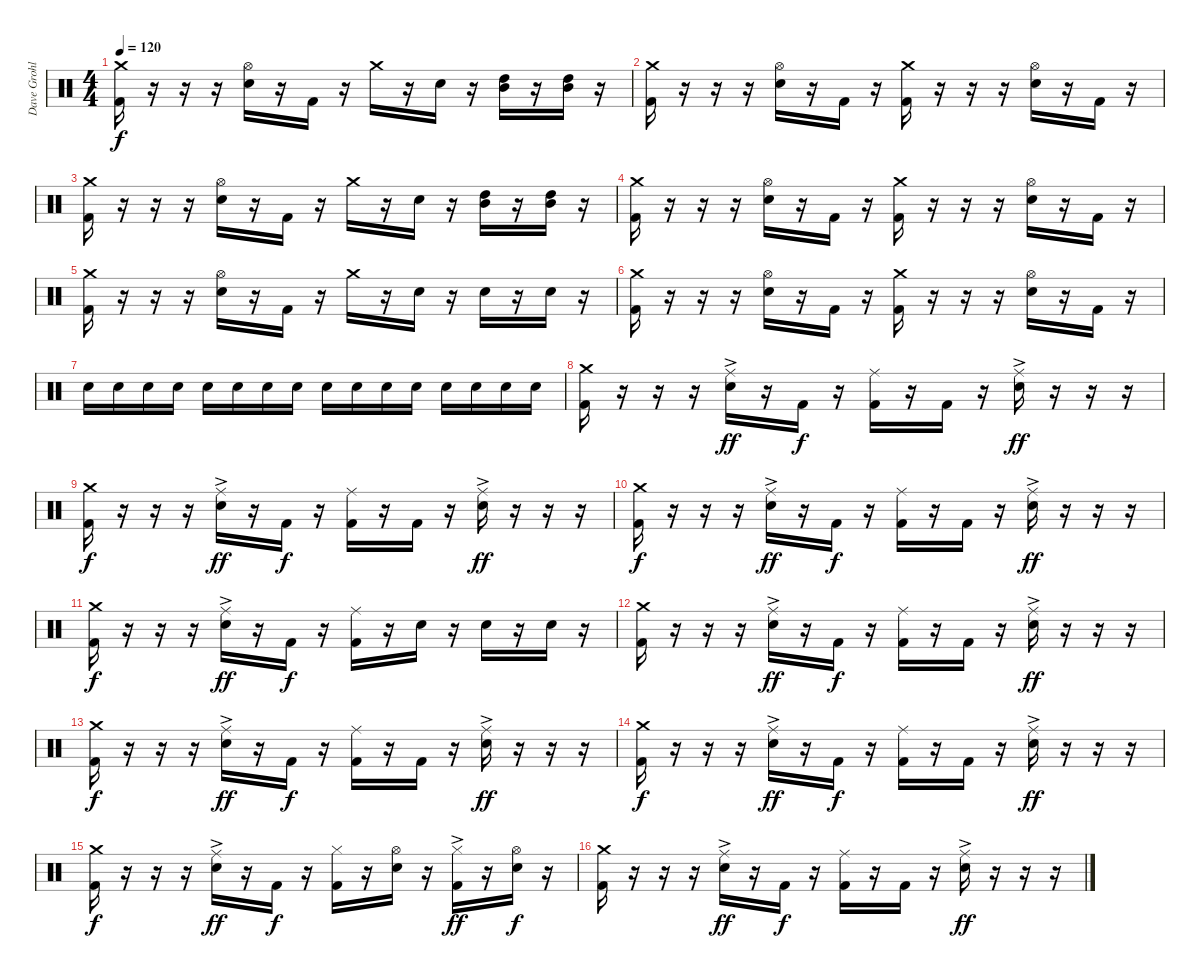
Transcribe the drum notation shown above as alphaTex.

\track ("Dave Grohl" "Dave Grohl") {instrument percussion}
\staff {score}
\articulation defaults
\ts (4 4)
\tempo 120
\clef neutral
\ks c
("Crash medium (hit)" "Kick (hit) 2").16{dy f} r.16 r.16 r.16 ("Hi-Hat (open)" "Electric Snare (hit)").16 r.16 "Kick (hit) 2".16 r.16 "Crash medium (hit)".16 r.16 "Electric Snare (hit)".16 r.16 ("High Tom (hit)" "Mid Tom (hit)").16 r.16 ("High Tom (hit)" "Mid Tom (hit)").16 r.16 |
("Crash medium (hit)" "Kick (hit) 2").16 r.16 r.16 r.16 ("Hi-Hat (open)" "Electric Snare (hit)").16 r.16 "Kick (hit) 2".16 r.16 ("Crash medium (hit)" "Kick (hit) 2").16 r.16 r.16 r.16 ("Hi-Hat (open)" "Electric Snare (hit)").16 r.16 "Kick (hit) 2".16 r.16 |
("Crash medium (hit)" "Kick (hit) 2").16 r.16 r.16 r.16 ("Hi-Hat (open)" "Electric Snare (hit)").16 r.16 "Kick (hit) 2".16 r.16 "Crash medium (hit)".16 r.16 "Electric Snare (hit)".16 r.16 ("High Tom (hit)" "Mid Tom (hit)").16 r.16 ("High Tom (hit)" "Mid Tom (hit)").16 r.16 |
("Crash medium (hit)" "Kick (hit) 2").16 r.16 r.16 r.16 ("Hi-Hat (open)" "Electric Snare (hit)").16 r.16 "Kick (hit) 2".16 r.16 ("Crash medium (hit)" "Kick (hit) 2").16 r.16 r.16 r.16 ("Hi-Hat (open)" "Electric Snare (hit)").16 r.16 "Kick (hit) 2".16 r.16 |
("Crash medium (hit)" "Kick (hit) 2").16 r.16 r.16 r.16 ("Hi-Hat (open)" "Electric Snare (hit)").16 r.16 "Kick (hit) 2".16 r.16 "Crash medium (hit)".16 r.16 "Electric Snare (hit)".16 r.16 "Electric Snare (hit)".16 r.16 "Electric Snare (hit)".16 r.16 |
("Crash medium (hit)" "Kick (hit) 2").16 r.16 r.16 r.16 ("Hi-Hat (open)" "Electric Snare (hit)").16 r.16 "Kick (hit) 2".16 r.16 ("Crash medium (hit)" "Kick (hit) 2").16 r.16 r.16 r.16 ("Hi-Hat (open)" "Electric Snare (hit)").16 r.16 "Kick (hit) 2".16 r.16 |
"Electric Snare (hit)".16 "Electric Snare (hit)".16 "Electric Snare (hit)".16 "Electric Snare (hit)".16 "Electric Snare (hit)".16 "Electric Snare (hit)".16 "Electric Snare (hit)".16 "Electric Snare (hit)".16 "Electric Snare (hit)".16 "Electric Snare (hit)".16 "Electric Snare (hit)".16 "Electric Snare (hit)".16 "Electric Snare (hit)".16 "Electric Snare (hit)".16 "Electric Snare (hit)".16 "Electric Snare (hit)".16 |
("Crash medium (hit)" "Kick (hit) 2").16 r.16 r.16 r.16 ("Ride (middle)"{ac} "Electric Snare (hit)").16{dy ff} r.16 "Kick (hit) 2".16{dy f} r.16 ("Ride (middle)" "Kick (hit) 2").16 r.16 "Kick (hit) 2".16 r.16 ("Ride (middle)"{ac} "Electric Snare (hit)").16{dy ff} r.16 r.16 r.16 |
("Crash medium (hit)" "Kick (hit) 2").16{dy f} r.16 r.16 r.16 ("Ride (middle)"{ac} "Electric Snare (hit)").16{dy ff} r.16 "Kick (hit) 2".16{dy f} r.16 ("Ride (middle)" "Kick (hit) 2").16 r.16 "Kick (hit) 2".16 r.16 ("Ride (middle)"{ac} "Electric Snare (hit)").16{dy ff} r.16 r.16 r.16 |
("Crash medium (hit)" "Kick (hit) 2").16{dy f} r.16 r.16 r.16 ("Ride (middle)"{ac} "Electric Snare (hit)").16{dy ff} r.16 "Kick (hit) 2".16{dy f} r.16 ("Ride (middle)" "Kick (hit) 2").16 r.16 "Kick (hit) 2".16 r.16 ("Ride (middle)"{ac} "Electric Snare (hit)").16{dy ff} r.16 r.16 r.16 |
("Crash medium (hit)" "Kick (hit) 2").16{dy f} r.16 r.16 r.16 ("Ride (middle)"{ac} "Electric Snare (hit)").16{dy ff} r.16 "Kick (hit) 2".16{dy f} r.16 ("Ride (middle)" "Kick (hit) 2").16 r.16 "Electric Snare (hit)".16 r.16 "Electric Snare (hit)".16 r.16 "Electric Snare (hit)".16 r.16 |
("Crash medium (hit)" "Kick (hit) 2").16 r.16 r.16 r.16 ("Ride (middle)"{ac} "Electric Snare (hit)").16{dy ff} r.16 "Kick (hit) 2".16{dy f} r.16 ("Ride (middle)" "Kick (hit) 2").16 r.16 "Kick (hit) 2".16 r.16 ("Ride (middle)"{ac} "Electric Snare (hit)").16{dy ff} r.16 r.16 r.16 |
("Crash medium (hit)" "Kick (hit) 2").16{dy f} r.16 r.16 r.16 ("Ride (middle)"{ac} "Electric Snare (hit)").16{dy ff} r.16 "Kick (hit) 2".16{dy f} r.16 ("Ride (middle)" "Kick (hit) 2").16 r.16 "Kick (hit) 2".16 r.16 ("Ride (middle)"{ac} "Electric Snare (hit)").16{dy ff} r.16 r.16 r.16 |
("Crash medium (hit)" "Kick (hit) 2").16{dy f} r.16 r.16 r.16 ("Ride (middle)"{ac} "Electric Snare (hit)").16{dy ff} r.16 "Kick (hit) 2".16{dy f} r.16 ("Ride (middle)" "Kick (hit) 2").16 r.16 "Kick (hit) 2".16 r.16 ("Ride (middle)"{ac} "Electric Snare (hit)").16{dy ff} r.16 r.16 r.16 |
("Crash medium (hit)" "Kick (hit) 2").16{dy f} r.16 r.16 r.16 ("Ride (middle)"{ac} "Electric Snare (hit)").16{dy ff} r.16 "Kick (hit) 2".16{dy f} r.16 ("Hi-Hat (closed)" "Kick (hit) 2").16 r.16 ("Hi-Hat (open)" "Electric Snare (hit)").16 r.16 ("Hi-Hat (closed)"{ac} "Kick (hit) 2").16{dy ff} r.16 ("Hi-Hat (open)" "Electric Snare (hit)").16{dy f} r.16 |
("Crash medium (hit)" "Kick (hit) 2").16 r.16 r.16 r.16 ("Ride (middle)"{ac} "Electric Snare (hit)").16{dy ff} r.16 "Kick (hit) 2".16{dy f} r.16 ("Ride (middle)" "Kick (hit) 2").16 r.16 "Kick (hit) 2".16 r.16 ("Ride (middle)"{ac} "Electric Snare (hit)").16{dy ff} r.16 r.16 r.16
